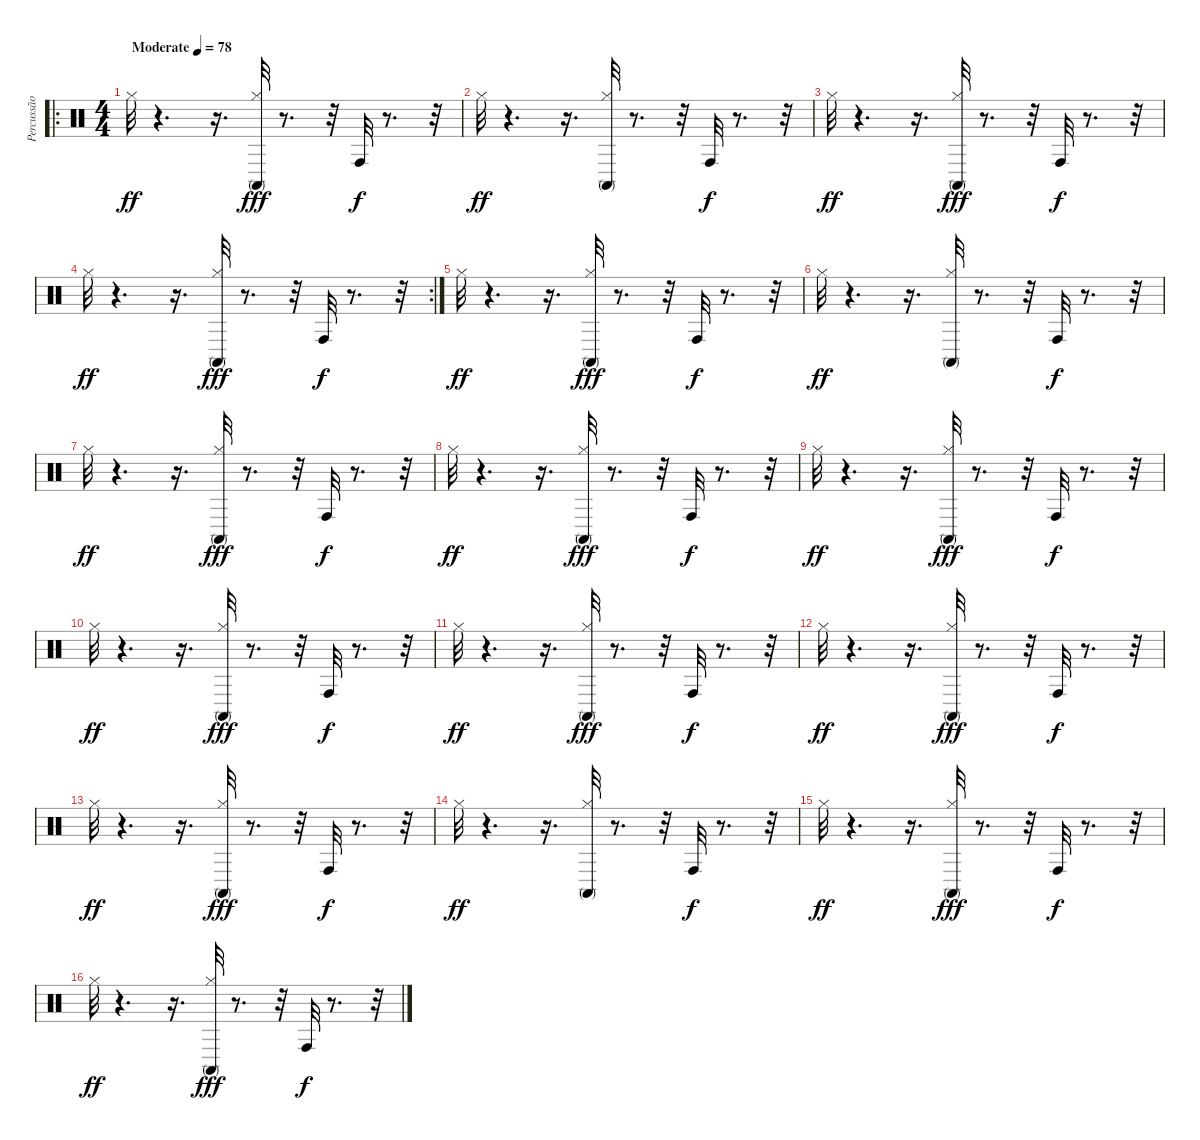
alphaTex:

\track ("Percussão" "Percussão") {instrument percussion}
\staff {score}
\articulation defaults
\ro
\ts (4 4)
\tempo (78 "Moderate")
\clef neutral
\ks c "Hi-Hat (closed)".32{dy ff}
r.4{d} r.16{d} ("Hi-Hat (closed)" "Conga high (mute)").32{dy fff} r.8{d} r.32 "Conga high (hit)".32{dy f} r.8{d} r.32 |
"Hi-Hat (closed)".32{dy ff} r.4{d} r.16{d} ("Conga high (mute)" "Hi-Hat (closed)").32 r.8{d} r.32 "Conga high (hit)".32{dy f} r.8{d} r.32 |
"Hi-Hat (closed)".32{dy ff} r.4{d} r.16{d} ("Hi-Hat (closed)" "Conga high (mute)").32{dy fff} r.8{d} r.32 "Conga high (hit)".32{dy f} r.8{d} r.32 |
\rc 2 "Hi-Hat (closed)".32{dy ff}
r.4{d} r.16{d} ("Hi-Hat (closed)" "Conga high (mute)").32{dy fff} r.8{d} r.32 "Conga high (hit)".32{dy f} r.8{d} r.32 |
"Hi-Hat (closed)".32{dy ff} r.4{d} r.16{d} ("Hi-Hat (closed)" "Conga high (mute)").32{dy fff} r.8{d} r.32 "Conga high (hit)".32{dy f} r.8{d} r.32 |
"Hi-Hat (closed)".32{dy ff} r.4{d} r.16{d} ("Conga high (mute)" "Hi-Hat (closed)").32 r.8{d} r.32 "Conga high (hit)".32{dy f} r.8{d} r.32 |
"Hi-Hat (closed)".32{dy ff} r.4{d} r.16{d} ("Hi-Hat (closed)" "Conga high (mute)").32{dy fff} r.8{d} r.32 "Conga high (hit)".32{dy f} r.8{d} r.32 |
"Hi-Hat (closed)".32{dy ff} r.4{d} r.16{d} ("Hi-Hat (closed)" "Conga high (mute)").32{dy fff} r.8{d} r.32 "Conga high (hit)".32{dy f} r.8{d} r.32 |
"Hi-Hat (closed)".32{dy ff} r.4{d} r.16{d} ("Hi-Hat (closed)" "Conga high (mute)").32{dy fff} r.8{d} r.32 "Conga high (hit)".32{dy f} r.8{d} r.32 |
"Hi-Hat (closed)".32{dy ff} r.4{d} r.16{d} ("Hi-Hat (closed)" "Conga high (mute)").32{dy fff} r.8{d} r.32 "Conga high (hit)".32{dy f} r.8{d} r.32 |
"Hi-Hat (closed)".32{dy ff} r.4{d} r.16{d} ("Hi-Hat (closed)" "Conga high (mute)").32{dy fff} r.8{d} r.32 "Conga high (hit)".32{dy f} r.8{d} r.32 |
"Hi-Hat (closed)".32{dy ff} r.4{d} r.16{d} ("Hi-Hat (closed)" "Conga high (mute)").32{dy fff} r.8{d} r.32 "Conga high (hit)".32{dy f} r.8{d} r.32 |
"Hi-Hat (closed)".32{dy ff} r.4{d} r.16{d} ("Hi-Hat (closed)" "Conga high (mute)").32{dy fff} r.8{d} r.32 "Conga high (hit)".32{dy f} r.8{d} r.32 |
"Hi-Hat (closed)".32{dy ff} r.4{d} r.16{d} ("Conga high (mute)" "Hi-Hat (closed)").32 r.8{d} r.32 "Conga high (hit)".32{dy f} r.8{d} r.32 |
"Hi-Hat (closed)".32{dy ff} r.4{d} r.16{d} ("Hi-Hat (closed)" "Conga high (mute)").32{dy fff} r.8{d} r.32 "Conga high (hit)".32{dy f} r.8{d} r.32 |
"Hi-Hat (closed)".32{dy ff} r.4{d} r.16{d} ("Hi-Hat (closed)" "Conga high (mute)").32{dy fff} r.8{d} r.32 "Conga high (hit)".32{dy f} r.8{d} r.32
